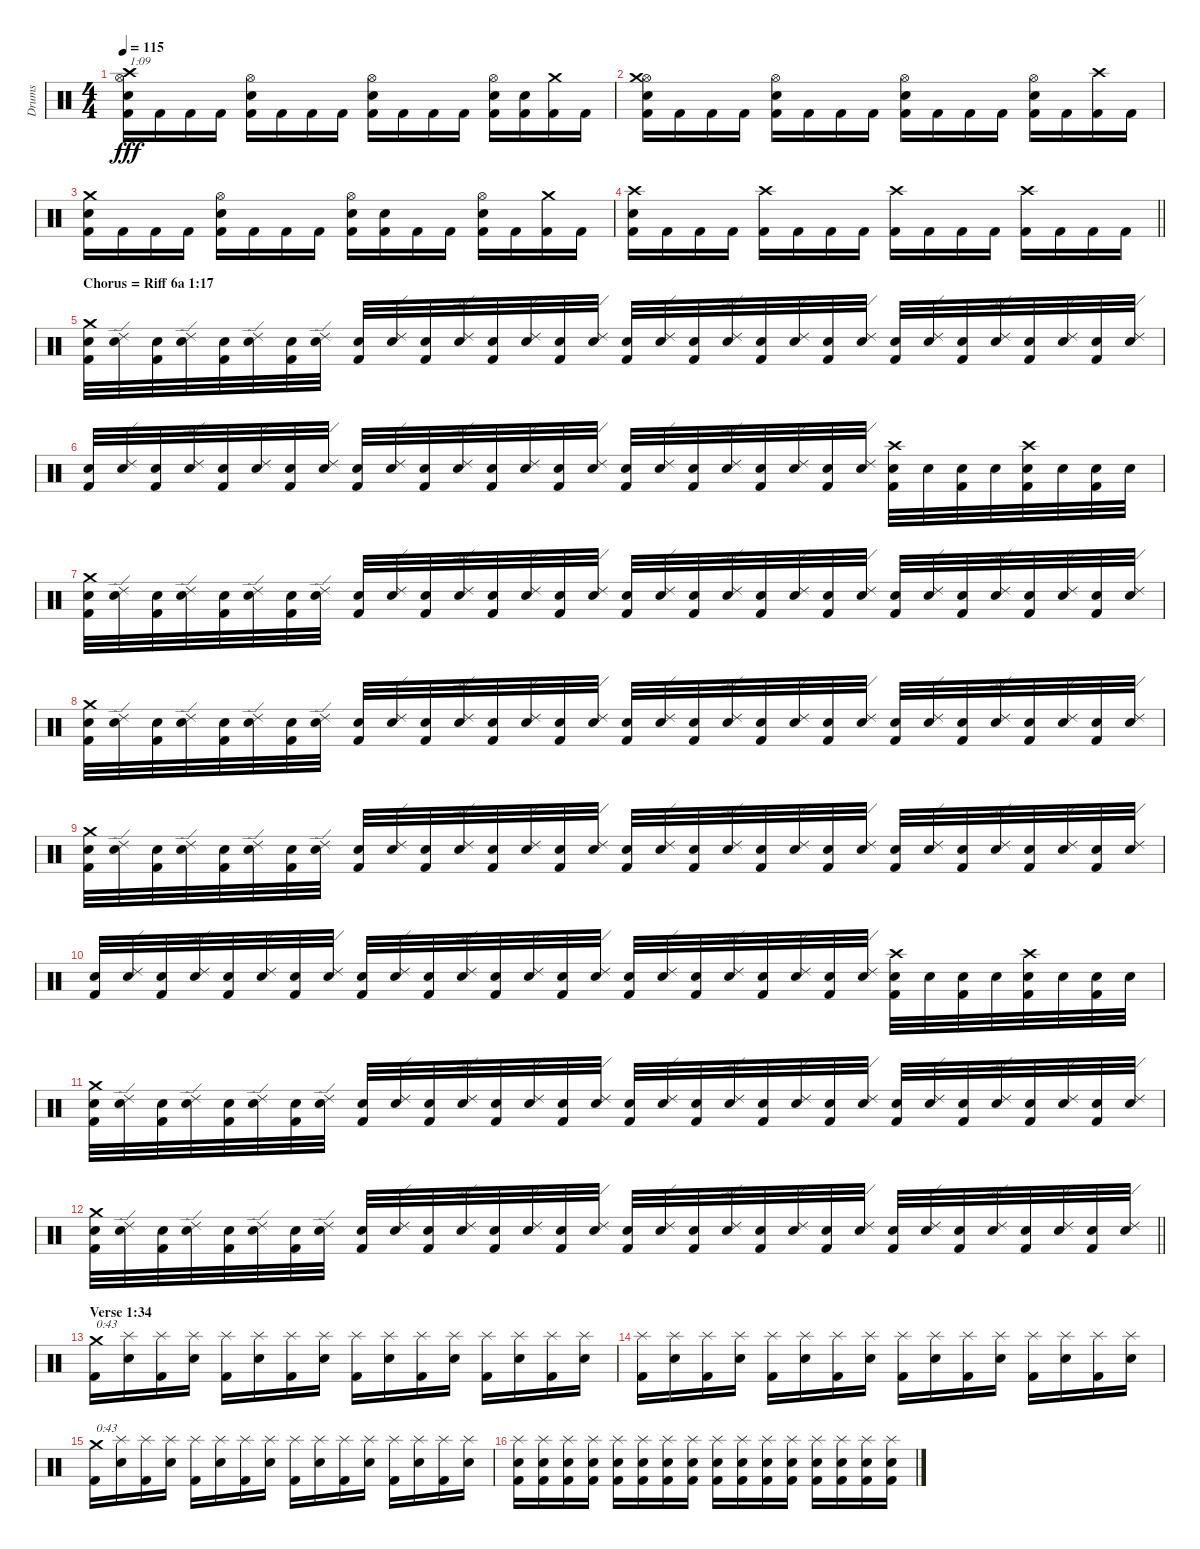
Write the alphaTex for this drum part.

\track ("Drums" "Drums") {instrument percussion}
\staff {score}
\articulation defaults
\ts (4 4)
\tempo 115
\clef neutral
\ks c
("Kick (hit) 2" "Electric Snare (hit)" "Hi-Hat (open)" "Crash high (hit)").16{txt "1:09" dy fff} "Kick (hit) 2".16 "Kick (hit) 2".16 "Kick (hit) 2".16 ("Kick (hit) 2" "Electric Snare (hit)" "Hi-Hat (open)").16 "Kick (hit) 2".16 "Kick (hit) 2".16 "Kick (hit) 2".16 ("Kick (hit) 2" "Electric Snare (hit)" "Hi-Hat (open)").16 "Kick (hit) 2".16 "Kick (hit) 2".16 "Kick (hit) 2".16 ("Kick (hit) 2" "Electric Snare (hit)" "Hi-Hat (open)").16 ("Kick (hit) 2" "Electric Snare (hit)").16 ("Kick (hit) 2" "Crash medium (hit)").16 "Kick (hit) 2".16 |
("Kick (hit) 2" "Electric Snare (hit)" "Hi-Hat (open)" "Crash medium (hit)").16 "Kick (hit) 2".16 "Kick (hit) 2".16 "Kick (hit) 2".16 ("Kick (hit) 2" "Electric Snare (hit)" "Hi-Hat (open)").16 "Kick (hit) 2".16 "Kick (hit) 2".16 "Kick (hit) 2".16 ("Kick (hit) 2" "Electric Snare (hit)" "Hi-Hat (open)").16 "Kick (hit) 2".16 "Kick (hit) 2".16 "Kick (hit) 2".16 ("Kick (hit) 2" "Electric Snare (hit)" "Hi-Hat (open)").16 "Kick (hit) 2".16 ("Kick (hit) 2" "Crash high (hit)").16 "Kick (hit) 2".16 |
("Kick (hit) 2" "Electric Snare (hit)" "Crash medium (hit)").16 "Kick (hit) 2".16 "Kick (hit) 2".16 "Kick (hit) 2".16 ("Kick (hit) 2" "Electric Snare (hit)" "Hi-Hat (open)").16 "Kick (hit) 2".16 "Kick (hit) 2".16 "Kick (hit) 2".16 ("Kick (hit) 2" "Electric Snare (hit)" "Hi-Hat (open)").16 ("Kick (hit) 2" "Electric Snare (hit)").16 "Kick (hit) 2".16 "Kick (hit) 2".16 ("Kick (hit) 2" "Electric Snare (hit)" "Hi-Hat (open)").16 "Kick (hit) 2".16 ("Kick (hit) 2" "Crash medium (hit)").16 "Kick (hit) 2".16 |
\barLineRight lightlight
("Kick (hit) 2" "Electric Snare (hit)" "Crash high (hit)").16 "Kick (hit) 2".16 "Kick (hit) 2".16 "Kick (hit) 2".16 ("Kick (hit) 2" "Crash high (hit)").16 "Kick (hit) 2".16 "Kick (hit) 2".16 "Kick (hit) 2".16 ("Kick (hit) 2" "Crash high (hit)").16 "Kick (hit) 2".16 "Kick (hit) 2".16 "Kick (hit) 2".16 ("Kick (hit) 2" "Crash high (hit)").16 "Kick (hit) 2".16 "Kick (hit) 2".16 "Kick (hit) 2".16 |
\section ("" "Chorus = Riff 6a 1:17")
("Kick (hit) 2" "Electric Snare (hit)" "Crash medium (hit)").32 ("Electric Snare (hit)" "Ride (edge) 2").32 ("Kick (hit) 2" "Electric Snare (hit)").32 ("Electric Snare (hit)" "Ride (edge) 2").32 ("Kick (hit) 2" "Electric Snare (hit)").32 ("Electric Snare (hit)" "Ride (edge) 2").32 ("Kick (hit) 2" "Electric Snare (hit)").32 ("Electric Snare (hit)" "Ride (edge) 2").32 ("Kick (hit) 2" "Electric Snare (hit)").32 ("Electric Snare (hit)" "Ride (edge) 2").32 ("Kick (hit) 2" "Electric Snare (hit)").32 ("Electric Snare (hit)" "Ride (edge) 2").32 ("Kick (hit) 2" "Electric Snare (hit)").32 ("Electric Snare (hit)" "Ride (edge) 2").32 ("Kick (hit) 2" "Electric Snare (hit)").32 ("Electric Snare (hit)" "Ride (edge) 2").32 ("Kick (hit) 2" "Electric Snare (hit)").32 ("Electric Snare (hit)" "Ride (edge) 2").32 ("Kick (hit) 2" "Electric Snare (hit)").32 ("Electric Snare (hit)" "Ride (edge) 2").32 ("Kick (hit) 2" "Electric Snare (hit)").32 ("Electric Snare (hit)" "Ride (edge) 2").32 ("Kick (hit) 2" "Electric Snare (hit)").32 ("Electric Snare (hit)" "Ride (edge) 2").32 ("Kick (hit) 2" "Electric Snare (hit)").32 ("Electric Snare (hit)" "Ride (edge) 2").32 ("Kick (hit) 2" "Electric Snare (hit)").32 ("Electric Snare (hit)" "Ride (edge) 2").32 ("Kick (hit) 2" "Electric Snare (hit)").32 ("Electric Snare (hit)" "Ride (edge) 2").32 ("Kick (hit) 2" "Electric Snare (hit)").32 ("Electric Snare (hit)" "Ride (edge) 2").32 |
("Kick (hit) 2" "Electric Snare (hit)").32 ("Electric Snare (hit)" "Ride (edge) 2").32 ("Kick (hit) 2" "Electric Snare (hit)").32 ("Electric Snare (hit)" "Ride (edge) 2").32 ("Kick (hit) 2" "Electric Snare (hit)").32 ("Electric Snare (hit)" "Ride (edge) 2").32 ("Kick (hit) 2" "Electric Snare (hit)").32 ("Electric Snare (hit)" "Ride (edge) 2").32 ("Kick (hit) 2" "Electric Snare (hit)").32 ("Electric Snare (hit)" "Ride (edge) 2").32 ("Kick (hit) 2" "Electric Snare (hit)").32 ("Electric Snare (hit)" "Ride (edge) 2").32 ("Kick (hit) 2" "Electric Snare (hit)").32 ("Electric Snare (hit)" "Ride (edge) 2").32 ("Kick (hit) 2" "Electric Snare (hit)").32 ("Electric Snare (hit)" "Ride (edge) 2").32 ("Kick (hit) 2" "Electric Snare (hit)").32 ("Electric Snare (hit)" "Ride (edge) 2").32 ("Kick (hit) 2" "Electric Snare (hit)").32 ("Electric Snare (hit)" "Ride (edge) 2").32 ("Kick (hit) 2" "Electric Snare (hit)").32 ("Electric Snare (hit)" "Ride (edge) 2").32 ("Kick (hit) 2" "Electric Snare (hit)").32 ("Electric Snare (hit)" "Ride (edge) 2").32 ("Kick (hit) 2" "Electric Snare (hit)" "Crash high (hit)").32 "Electric Snare (hit)".32 ("Kick (hit) 2" "Electric Snare (hit)").32 "Electric Snare (hit)".32 ("Kick (hit) 2" "Electric Snare (hit)" "Crash high (hit)").32 "Electric Snare (hit)".32 ("Kick (hit) 2" "Electric Snare (hit)").32 "Electric Snare (hit)".32 |
("Kick (hit) 2" "Electric Snare (hit)" "Crash medium (hit)").32 ("Electric Snare (hit)" "Ride (edge) 2").32 ("Kick (hit) 2" "Electric Snare (hit)").32 ("Electric Snare (hit)" "Ride (edge) 2").32 ("Kick (hit) 2" "Electric Snare (hit)").32 ("Electric Snare (hit)" "Ride (edge) 2").32 ("Kick (hit) 2" "Electric Snare (hit)").32 ("Electric Snare (hit)" "Ride (edge) 2").32 ("Kick (hit) 2" "Electric Snare (hit)").32 ("Electric Snare (hit)" "Ride (edge) 2").32 ("Kick (hit) 2" "Electric Snare (hit)").32 ("Electric Snare (hit)" "Ride (edge) 2").32 ("Kick (hit) 2" "Electric Snare (hit)").32 ("Electric Snare (hit)" "Ride (edge) 2").32 ("Kick (hit) 2" "Electric Snare (hit)").32 ("Electric Snare (hit)" "Ride (edge) 2").32 ("Kick (hit) 2" "Electric Snare (hit)").32 ("Electric Snare (hit)" "Ride (edge) 2").32 ("Kick (hit) 2" "Electric Snare (hit)").32 ("Electric Snare (hit)" "Ride (edge) 2").32 ("Kick (hit) 2" "Electric Snare (hit)").32 ("Electric Snare (hit)" "Ride (edge) 2").32 ("Kick (hit) 2" "Electric Snare (hit)").32 ("Electric Snare (hit)" "Ride (edge) 2").32 ("Kick (hit) 2" "Electric Snare (hit)").32 ("Electric Snare (hit)" "Ride (edge) 2").32 ("Kick (hit) 2" "Electric Snare (hit)").32 ("Electric Snare (hit)" "Ride (edge) 2").32 ("Kick (hit) 2" "Electric Snare (hit)").32 ("Electric Snare (hit)" "Ride (edge) 2").32 ("Kick (hit) 2" "Electric Snare (hit)").32 ("Electric Snare (hit)" "Ride (edge) 2").32 |
("Kick (hit) 2" "Electric Snare (hit)" "Crash medium (hit)").32 ("Electric Snare (hit)" "Ride (edge) 2").32 ("Kick (hit) 2" "Electric Snare (hit)").32 ("Electric Snare (hit)" "Ride (edge) 2").32 ("Kick (hit) 2" "Electric Snare (hit)").32 ("Electric Snare (hit)" "Ride (edge) 2").32 ("Kick (hit) 2" "Electric Snare (hit)").32 ("Electric Snare (hit)" "Ride (edge) 2").32 ("Kick (hit) 2" "Electric Snare (hit)").32 ("Electric Snare (hit)" "Ride (edge) 2").32 ("Kick (hit) 2" "Electric Snare (hit)").32 ("Electric Snare (hit)" "Ride (edge) 2").32 ("Kick (hit) 2" "Electric Snare (hit)").32 ("Electric Snare (hit)" "Ride (edge) 2").32 ("Kick (hit) 2" "Electric Snare (hit)").32 ("Electric Snare (hit)" "Ride (edge) 2").32 ("Kick (hit) 2" "Electric Snare (hit)").32 ("Electric Snare (hit)" "Ride (edge) 2").32 ("Kick (hit) 2" "Electric Snare (hit)").32 ("Electric Snare (hit)" "Ride (edge) 2").32 ("Kick (hit) 2" "Electric Snare (hit)").32 ("Electric Snare (hit)" "Ride (edge) 2").32 ("Kick (hit) 2" "Electric Snare (hit)").32 ("Electric Snare (hit)" "Ride (edge) 2").32 ("Kick (hit) 2" "Electric Snare (hit)").32 ("Electric Snare (hit)" "Ride (edge) 2").32 ("Kick (hit) 2" "Electric Snare (hit)").32 ("Electric Snare (hit)" "Ride (edge) 2").32 ("Kick (hit) 2" "Electric Snare (hit)").32 ("Electric Snare (hit)" "Ride (edge) 2").32 ("Kick (hit) 2" "Electric Snare (hit)").32 ("Electric Snare (hit)" "Ride (edge) 2").32 |
("Kick (hit) 2" "Electric Snare (hit)" "Crash medium (hit)").32 ("Electric Snare (hit)" "Ride (edge) 2").32 ("Kick (hit) 2" "Electric Snare (hit)").32 ("Electric Snare (hit)" "Ride (edge) 2").32 ("Kick (hit) 2" "Electric Snare (hit)").32 ("Electric Snare (hit)" "Ride (edge) 2").32 ("Kick (hit) 2" "Electric Snare (hit)").32 ("Electric Snare (hit)" "Ride (edge) 2").32 ("Kick (hit) 2" "Electric Snare (hit)").32 ("Electric Snare (hit)" "Ride (edge) 2").32 ("Kick (hit) 2" "Electric Snare (hit)").32 ("Electric Snare (hit)" "Ride (edge) 2").32 ("Kick (hit) 2" "Electric Snare (hit)").32 ("Electric Snare (hit)" "Ride (edge) 2").32 ("Kick (hit) 2" "Electric Snare (hit)").32 ("Electric Snare (hit)" "Ride (edge) 2").32 ("Kick (hit) 2" "Electric Snare (hit)").32 ("Electric Snare (hit)" "Ride (edge) 2").32 ("Kick (hit) 2" "Electric Snare (hit)").32 ("Electric Snare (hit)" "Ride (edge) 2").32 ("Kick (hit) 2" "Electric Snare (hit)").32 ("Electric Snare (hit)" "Ride (edge) 2").32 ("Kick (hit) 2" "Electric Snare (hit)").32 ("Electric Snare (hit)" "Ride (edge) 2").32 ("Kick (hit) 2" "Electric Snare (hit)").32 ("Electric Snare (hit)" "Ride (edge) 2").32 ("Kick (hit) 2" "Electric Snare (hit)").32 ("Electric Snare (hit)" "Ride (edge) 2").32 ("Kick (hit) 2" "Electric Snare (hit)").32 ("Electric Snare (hit)" "Ride (edge) 2").32 ("Kick (hit) 2" "Electric Snare (hit)").32 ("Electric Snare (hit)" "Ride (edge) 2").32 |
("Kick (hit) 2" "Electric Snare (hit)").32 ("Electric Snare (hit)" "Ride (edge) 2").32 ("Kick (hit) 2" "Electric Snare (hit)").32 ("Electric Snare (hit)" "Ride (edge) 2").32 ("Kick (hit) 2" "Electric Snare (hit)").32 ("Electric Snare (hit)" "Ride (edge) 2").32 ("Kick (hit) 2" "Electric Snare (hit)").32 ("Electric Snare (hit)" "Ride (edge) 2").32 ("Kick (hit) 2" "Electric Snare (hit)").32 ("Electric Snare (hit)" "Ride (edge) 2").32 ("Kick (hit) 2" "Electric Snare (hit)").32 ("Electric Snare (hit)" "Ride (edge) 2").32 ("Kick (hit) 2" "Electric Snare (hit)").32 ("Electric Snare (hit)" "Ride (edge) 2").32 ("Kick (hit) 2" "Electric Snare (hit)").32 ("Electric Snare (hit)" "Ride (edge) 2").32 ("Kick (hit) 2" "Electric Snare (hit)").32 ("Electric Snare (hit)" "Ride (edge) 2").32 ("Kick (hit) 2" "Electric Snare (hit)").32 ("Electric Snare (hit)" "Ride (edge) 2").32 ("Kick (hit) 2" "Electric Snare (hit)").32 ("Electric Snare (hit)" "Ride (edge) 2").32 ("Kick (hit) 2" "Electric Snare (hit)").32 ("Electric Snare (hit)" "Ride (edge) 2").32 ("Kick (hit) 2" "Electric Snare (hit)" "Crash high (hit)").32 "Electric Snare (hit)".32 ("Kick (hit) 2" "Electric Snare (hit)").32 "Electric Snare (hit)".32 ("Kick (hit) 2" "Electric Snare (hit)" "Crash high (hit)").32 "Electric Snare (hit)".32 ("Kick (hit) 2" "Electric Snare (hit)").32 "Electric Snare (hit)".32 |
("Kick (hit) 2" "Electric Snare (hit)" "Crash medium (hit)").32 ("Electric Snare (hit)" "Ride (edge) 2").32 ("Kick (hit) 2" "Electric Snare (hit)").32 ("Electric Snare (hit)" "Ride (edge) 2").32 ("Kick (hit) 2" "Electric Snare (hit)").32 ("Electric Snare (hit)" "Ride (edge) 2").32 ("Kick (hit) 2" "Electric Snare (hit)").32 ("Electric Snare (hit)" "Ride (edge) 2").32 ("Kick (hit) 2" "Electric Snare (hit)").32 ("Electric Snare (hit)" "Ride (edge) 2").32 ("Kick (hit) 2" "Electric Snare (hit)").32 ("Electric Snare (hit)" "Ride (edge) 2").32 ("Kick (hit) 2" "Electric Snare (hit)").32 ("Electric Snare (hit)" "Ride (edge) 2").32 ("Kick (hit) 2" "Electric Snare (hit)").32 ("Electric Snare (hit)" "Ride (edge) 2").32 ("Kick (hit) 2" "Electric Snare (hit)").32 ("Electric Snare (hit)" "Ride (edge) 2").32 ("Kick (hit) 2" "Electric Snare (hit)").32 ("Electric Snare (hit)" "Ride (edge) 2").32 ("Kick (hit) 2" "Electric Snare (hit)").32 ("Electric Snare (hit)" "Ride (edge) 2").32 ("Kick (hit) 2" "Electric Snare (hit)").32 ("Electric Snare (hit)" "Ride (edge) 2").32 ("Kick (hit) 2" "Electric Snare (hit)").32 ("Electric Snare (hit)" "Ride (edge) 2").32 ("Kick (hit) 2" "Electric Snare (hit)").32 ("Electric Snare (hit)" "Ride (edge) 2").32 ("Kick (hit) 2" "Electric Snare (hit)").32 ("Electric Snare (hit)" "Ride (edge) 2").32 ("Kick (hit) 2" "Electric Snare (hit)").32 ("Electric Snare (hit)" "Ride (edge) 2").32 |
\barLineRight lightlight
("Kick (hit) 2" "Electric Snare (hit)" "Crash medium (hit)").32 ("Electric Snare (hit)" "Ride (edge) 2").32 ("Kick (hit) 2" "Electric Snare (hit)").32 ("Electric Snare (hit)" "Ride (edge) 2").32 ("Kick (hit) 2" "Electric Snare (hit)").32 ("Electric Snare (hit)" "Ride (edge) 2").32 ("Kick (hit) 2" "Electric Snare (hit)").32 ("Electric Snare (hit)" "Ride (edge) 2").32 ("Kick (hit) 2" "Electric Snare (hit)").32 ("Electric Snare (hit)" "Ride (edge) 2").32 ("Kick (hit) 2" "Electric Snare (hit)").32 ("Electric Snare (hit)" "Ride (edge) 2").32 ("Kick (hit) 2" "Electric Snare (hit)").32 ("Electric Snare (hit)" "Ride (edge) 2").32 ("Kick (hit) 2" "Electric Snare (hit)").32 ("Electric Snare (hit)" "Ride (edge) 2").32 ("Kick (hit) 2" "Electric Snare (hit)").32 ("Electric Snare (hit)" "Ride (edge) 2").32 ("Kick (hit) 2" "Electric Snare (hit)").32 ("Electric Snare (hit)" "Ride (edge) 2").32 ("Kick (hit) 2" "Electric Snare (hit)").32 ("Electric Snare (hit)" "Ride (edge) 2").32 ("Kick (hit) 2" "Electric Snare (hit)").32 ("Electric Snare (hit)" "Ride (edge) 2").32 ("Kick (hit) 2" "Electric Snare (hit)").32 ("Electric Snare (hit)" "Ride (edge) 2").32 ("Kick (hit) 2" "Electric Snare (hit)").32 ("Electric Snare (hit)" "Ride (edge) 2").32 ("Kick (hit) 2" "Electric Snare (hit)").32 ("Electric Snare (hit)" "Ride (edge) 2").32 ("Kick (hit) 2" "Electric Snare (hit)").32 ("Electric Snare (hit)" "Ride (edge) 2").32 |
\section ("" "Verse 1:34")
("Kick (hit) 2" "Crash medium (hit)").16{txt "0:43"} ("Electric Snare (hit)" "Splash (hit)").16 ("Kick (hit) 2" "Splash (hit)").16 ("Electric Snare (hit)" "Splash (hit)").16 ("Kick (hit) 2" "Splash (hit)").16 ("Electric Snare (hit)" "Splash (hit)").16 ("Kick (hit) 2" "Splash (hit)").16 ("Electric Snare (hit)" "Splash (hit)").16 ("Kick (hit) 2" "Splash (hit)").16 ("Electric Snare (hit)" "Splash (hit)").16 ("Kick (hit) 2" "Splash (hit)").16 ("Electric Snare (hit)" "Splash (hit)").16 ("Kick (hit) 2" "Splash (hit)").16 ("Electric Snare (hit)" "Splash (hit)").16 ("Kick (hit) 2" "Splash (hit)").16 ("Electric Snare (hit)" "Splash (hit)").16 |
("Kick (hit) 2" "Splash (hit)").16 ("Electric Snare (hit)" "Splash (hit)").16 ("Kick (hit) 2" "Splash (hit)").16 ("Electric Snare (hit)" "Splash (hit)").16 ("Kick (hit) 2" "Splash (hit)").16 ("Electric Snare (hit)" "Splash (hit)").16 ("Kick (hit) 2" "Splash (hit)").16 ("Electric Snare (hit)" "Splash (hit)").16 ("Kick (hit) 2" "Splash (hit)").16 ("Electric Snare (hit)" "Splash (hit)").16 ("Kick (hit) 2" "Splash (hit)").16 ("Electric Snare (hit)" "Splash (hit)").16 ("Kick (hit) 2" "Splash (hit)").16 ("Electric Snare (hit)" "Splash (hit)").16 ("Kick (hit) 2" "Splash (hit)").16 ("Electric Snare (hit)" "Splash (hit)").16 |
("Kick (hit) 2" "Crash medium (hit)").16{txt "0:43"} ("Electric Snare (hit)" "Splash (hit)").16 ("Kick (hit) 2" "Splash (hit)").16 ("Electric Snare (hit)" "Splash (hit)").16 ("Kick (hit) 2" "Splash (hit)").16 ("Electric Snare (hit)" "Splash (hit)").16 ("Kick (hit) 2" "Splash (hit)").16 ("Electric Snare (hit)" "Splash (hit)").16 ("Kick (hit) 2" "Splash (hit)").16 ("Electric Snare (hit)" "Splash (hit)").16 ("Kick (hit) 2" "Splash (hit)").16 ("Electric Snare (hit)" "Splash (hit)").16 ("Kick (hit) 2" "Splash (hit)").16 ("Electric Snare (hit)" "Splash (hit)").16 ("Kick (hit) 2" "Splash (hit)").16 ("Electric Snare (hit)" "Splash (hit)").16 |
("Kick (hit) 2" "Electric Snare (hit)" "Splash (hit)").16 ("Kick (hit) 2" "Electric Snare (hit)" "Splash (hit)").16 ("Kick (hit) 2" "Electric Snare (hit)" "Splash (hit)").16 ("Kick (hit) 2" "Electric Snare (hit)" "Splash (hit)").16 ("Kick (hit) 2" "Electric Snare (hit)" "Splash (hit)").16 ("Kick (hit) 2" "Electric Snare (hit)" "Splash (hit)").16 ("Kick (hit) 2" "Electric Snare (hit)" "Splash (hit)").16 ("Kick (hit) 2" "Electric Snare (hit)" "Splash (hit)").16 ("Kick (hit) 2" "Electric Snare (hit)" "Splash (hit)").16 ("Kick (hit) 2" "Electric Snare (hit)" "Splash (hit)").16 ("Kick (hit) 2" "Electric Snare (hit)" "Splash (hit)").16 ("Kick (hit) 2" "Electric Snare (hit)" "Splash (hit)").16 ("Kick (hit) 2" "Electric Snare (hit)" "Splash (hit)").16 ("Kick (hit) 2" "Electric Snare (hit)" "Splash (hit)").16 ("Kick (hit) 2" "Electric Snare (hit)" "Splash (hit)").16 ("Kick (hit) 2" "Electric Snare (hit)" "Splash (hit)").16
